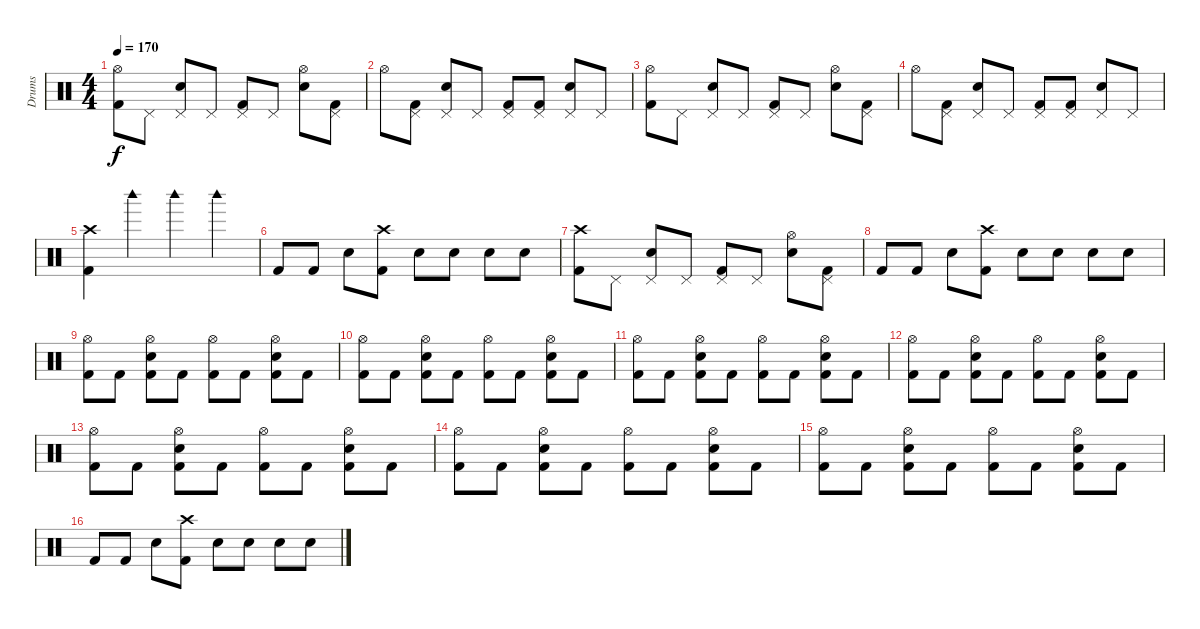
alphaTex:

\track ("Drums" "Drums") {instrument percussion}
\staff {score}
\articulation defaults
\ts (4 4)
\tempo 170
\clef neutral
\ks c
("Hi-Hat (open)" "Kick (hit) 2").8{dy f} "Pedal Hi-Hat (hit)".8 ("Pedal Hi-Hat (hit)" "Snare (hit) 2").8 "Pedal Hi-Hat (hit)".8 ("Pedal Hi-Hat (hit)" "Kick (hit) 2").8 "Pedal Hi-Hat (hit)".8 ("Hi-Hat (open)" "Snare (hit) 2").8 ("Pedal Hi-Hat (hit)" "Kick (hit) 2").8 |
"Hi-Hat (open)".8 ("Pedal Hi-Hat (hit)" "Kick (hit) 2").8 ("Pedal Hi-Hat (hit)" "Snare (hit) 2").8 "Pedal Hi-Hat (hit)".8 ("Pedal Hi-Hat (hit)" "Kick (hit) 2").8 ("Pedal Hi-Hat (hit)" "Kick (hit) 2").8 ("Pedal Hi-Hat (hit)" "Snare (hit) 2").8 "Pedal Hi-Hat (hit)".8 |
("Hi-Hat (open)" "Kick (hit) 2").8 "Pedal Hi-Hat (hit)".8 ("Pedal Hi-Hat (hit)" "Snare (hit) 2").8 "Pedal Hi-Hat (hit)".8 ("Pedal Hi-Hat (hit)" "Kick (hit) 2").8 "Pedal Hi-Hat (hit)".8 ("Hi-Hat (open)" "Snare (hit) 2").8 ("Pedal Hi-Hat (hit)" "Kick (hit) 2").8 |
"Hi-Hat (open)".8 ("Pedal Hi-Hat (hit)" "Kick (hit) 2").8 ("Pedal Hi-Hat (hit)" "Snare (hit) 2").8 "Pedal Hi-Hat (hit)".8 ("Pedal Hi-Hat (hit)" "Kick (hit) 2").8 ("Pedal Hi-Hat (hit)" "Kick (hit) 2").8 ("Pedal Hi-Hat (hit)" "Snare (hit) 2").8 "Pedal Hi-Hat (hit)".8 |
("Crash high (hit)" "Kick (hit) 2").4 "Woodblock high (hit)".4 "Woodblock high (hit)".4 "Woodblock high (hit)".4 |
"Kick (hit) 2".8 "Kick (hit) 2".8 "Snare (hit) 2".8 ("Crash high (hit)" "Kick (hit) 2").8 "Snare (hit) 2".8 "Snare (hit) 2".8 "Snare (hit) 2".8 "Snare (hit) 2".8 |
("Crash high (hit)" "Kick (hit) 2").8 "Pedal Hi-Hat (hit)".8 ("Pedal Hi-Hat (hit)" "Snare (hit) 2").8 "Pedal Hi-Hat (hit)".8 ("Pedal Hi-Hat (hit)" "Kick (hit) 2").8 "Pedal Hi-Hat (hit)".8 ("Hi-Hat (open)" "Snare (hit) 2").8 ("Pedal Hi-Hat (hit)" "Kick (hit) 2").8 |
"Kick (hit) 2".8 "Kick (hit) 2".8 "Snare (hit) 2".8 ("Crash high (hit)" "Kick (hit) 2").8 "Snare (hit) 2".8 "Snare (hit) 2".8 "Snare (hit) 2".8 "Snare (hit) 2".8 |
("Hi-Hat (open)" "Kick (hit) 2").8 "Kick (hit) 2".8 ("Hi-Hat (open)" "Snare (hit) 2" "Kick (hit) 2").8 "Kick (hit) 2".8 ("Hi-Hat (open)" "Kick (hit) 2").8 "Kick (hit) 2".8 ("Hi-Hat (open)" "Snare (hit) 2" "Kick (hit) 2").8 "Kick (hit) 2".8 |
("Hi-Hat (open)" "Kick (hit) 2").8 "Kick (hit) 2".8 ("Hi-Hat (open)" "Snare (hit) 2" "Kick (hit) 2").8 "Kick (hit) 2".8 ("Hi-Hat (open)" "Kick (hit) 2").8 "Kick (hit) 2".8 ("Hi-Hat (open)" "Snare (hit) 2" "Kick (hit) 2").8 "Kick (hit) 2".8 |
("Hi-Hat (open)" "Kick (hit) 2").8 "Kick (hit) 2".8 ("Hi-Hat (open)" "Snare (hit) 2" "Kick (hit) 2").8 "Kick (hit) 2".8 ("Hi-Hat (open)" "Kick (hit) 2").8 "Kick (hit) 2".8 ("Hi-Hat (open)" "Snare (hit) 2" "Kick (hit) 2").8 "Kick (hit) 2".8 |
("Hi-Hat (open)" "Kick (hit) 2").8 "Kick (hit) 2".8 ("Hi-Hat (open)" "Snare (hit) 2" "Kick (hit) 2").8 "Kick (hit) 2".8 ("Hi-Hat (open)" "Kick (hit) 2").8 "Kick (hit) 2".8 ("Hi-Hat (open)" "Snare (hit) 2" "Kick (hit) 2").8 "Kick (hit) 2".8 |
("Hi-Hat (open)" "Kick (hit) 2").8 "Kick (hit) 2".8 ("Hi-Hat (open)" "Snare (hit) 2" "Kick (hit) 2").8 "Kick (hit) 2".8 ("Hi-Hat (open)" "Kick (hit) 2").8 "Kick (hit) 2".8 ("Hi-Hat (open)" "Snare (hit) 2" "Kick (hit) 2").8 "Kick (hit) 2".8 |
("Hi-Hat (open)" "Kick (hit) 2").8 "Kick (hit) 2".8 ("Hi-Hat (open)" "Snare (hit) 2" "Kick (hit) 2").8 "Kick (hit) 2".8 ("Hi-Hat (open)" "Kick (hit) 2").8 "Kick (hit) 2".8 ("Hi-Hat (open)" "Snare (hit) 2" "Kick (hit) 2").8 "Kick (hit) 2".8 |
("Hi-Hat (open)" "Kick (hit) 2").8 "Kick (hit) 2".8 ("Hi-Hat (open)" "Snare (hit) 2" "Kick (hit) 2").8 "Kick (hit) 2".8 ("Hi-Hat (open)" "Kick (hit) 2").8 "Kick (hit) 2".8 ("Hi-Hat (open)" "Snare (hit) 2" "Kick (hit) 2").8 "Kick (hit) 2".8 |
"Kick (hit) 2".8 "Kick (hit) 2".8 "Snare (hit) 2".8 ("Crash high (hit)" "Kick (hit) 2").8 "Snare (hit) 2".8 "Snare (hit) 2".8 "Snare (hit) 2".8 "Snare (hit) 2".8
